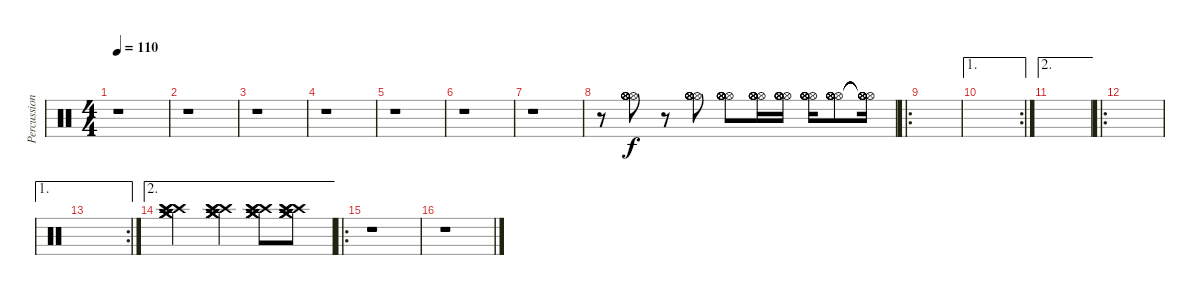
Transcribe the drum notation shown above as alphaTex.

\track ("Percussion 4" "Percussion") {instrument percussion}
\staff {score}
\articulation defaults
\ts (4 4)
\tempo 110
\clef neutral
\ks c
r.1{dy f} |
r.1 |
r.1 |
r.1 |
r.1 |
r.1 |
r.1 |
r.8 ("Hi-Hat (open)" "Hi-Hat (open)" "Hi-Hat (open)" "Hi-Hat (open)" "Hi-Hat (open)" "Hi-Hat (open)").8 r.8 ("Hi-Hat (open)" "Hi-Hat (open)" "Hi-Hat (open)" "Hi-Hat (open)" "Hi-Hat (open)" "Hi-Hat (open)").8 ("Hi-Hat (open)" "Hi-Hat (open)" "Hi-Hat (open)" "Hi-Hat (open)" "Hi-Hat (open)" "Hi-Hat (open)").8 ("Hi-Hat (open)" "Hi-Hat (open)" "Hi-Hat (open)" "Hi-Hat (open)" "Hi-Hat (open)" "Hi-Hat (open)").16 ("Hi-Hat (open)" "Hi-Hat (open)" "Hi-Hat (open)" "Hi-Hat (open)" "Hi-Hat (open)" "Hi-Hat (open)").16 ("Hi-Hat (open)" "Hi-Hat (open)" "Hi-Hat (open)" "Hi-Hat (open)" "Hi-Hat (open)" "Hi-Hat (open)").16 ("Hi-Hat (open)" "Hi-Hat (open)" "Hi-Hat (open)" "Hi-Hat (open)" "Hi-Hat (open)" "Hi-Hat (open)").8 ("Hi-Hat (open)"{t} "Hi-Hat (open)"{t} "Hi-Hat (open)"{t} "Hi-Hat (open)"{t} "Hi-Hat (open)"{t} "Hi-Hat (open)"{t}).16 |
\ro
|
\ae 1
\rc 2
|
\ae 2
|
\ro
|
\ae 1
\rc 2
|
\ae 2
("Crash medium (hit)" "Crash medium (hit)" "Crash medium (hit)" "Crash high (hit)" "Crash high (hit)" "Crash high (hit)").2 ("Crash medium (hit)" "Crash medium (hit)" "Crash medium (hit)" "Crash high (hit)" "Crash high (hit)" "Crash high (hit)").4 ("Crash medium (hit)" "Crash medium (hit)" "Crash medium (hit)" "Crash high (hit)" "Crash high (hit)" "Crash high (hit)").8 ("Crash medium (hit)" "Crash medium (hit)" "Crash medium (hit)" "Crash high (hit)" "Crash high (hit)" "Crash high (hit)").8 |
\ro
r.1 |
r.1
